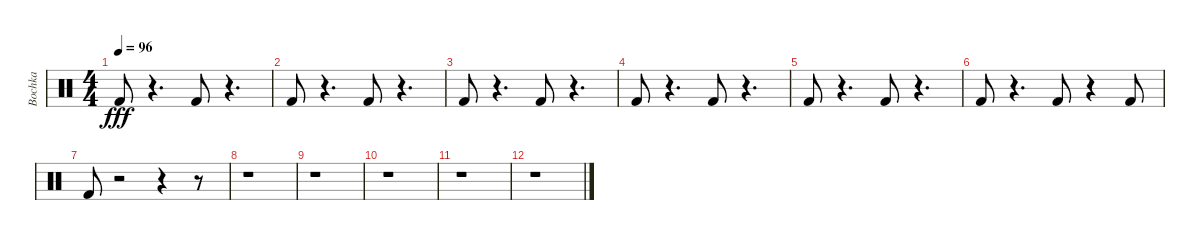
\track ("Bochka" "Bochka") {instrument percussion}
\staff {score}
\articulation defaults
\ts (4 4)
\tempo 96
\clef neutral
\ks c "Kick (hit) 2".8{dy fff}
r.4{d} "Kick (hit) 2".8 r.4{d} |
"Kick (hit) 2".8 r.4{d} "Kick (hit) 2".8 r.4{d} |
"Kick (hit) 2".8 r.4{d} "Kick (hit) 2".8 r.4{d} |
"Kick (hit) 2".8 r.4{d} "Kick (hit) 2".8 r.4{d} |
"Kick (hit) 2".8 r.4{d} "Kick (hit) 2".8 r.4{d} |
"Kick (hit) 2".8 r.4{d} "Kick (hit) 2".8 r.4 "Kick (hit) 2".8 |
"Kick (hit) 2".8 r.2 r.4 r.8 |
r.1 |
r.1 |
r.1 |
r.1 |
r.1
